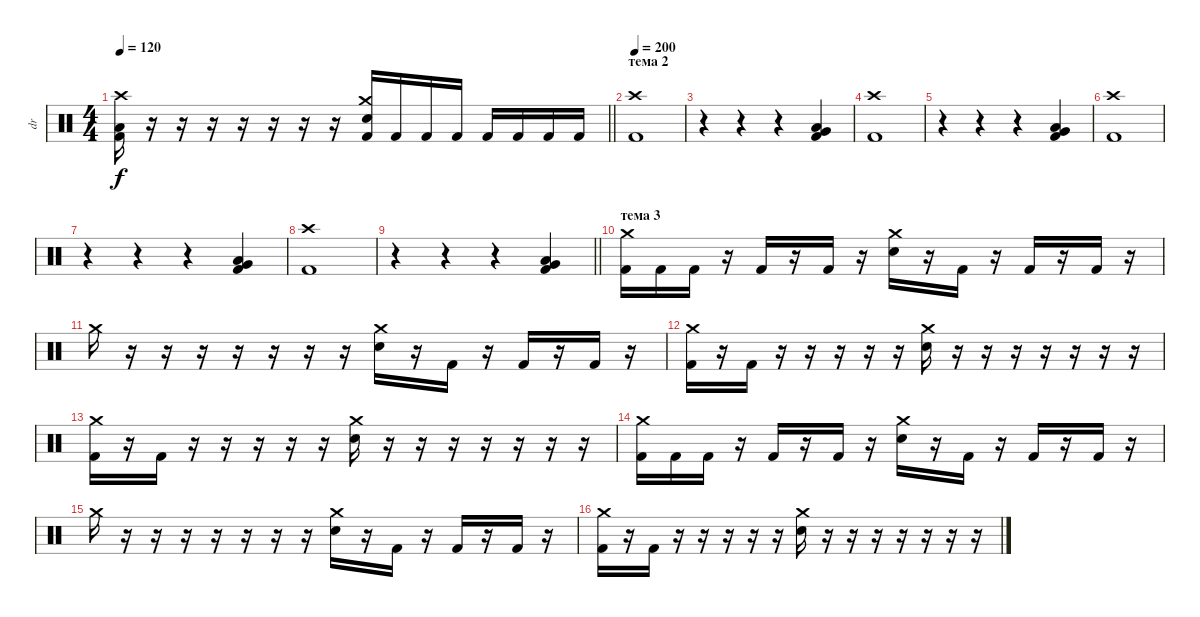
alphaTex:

\track ("dr" "dr") {instrument percussion}
\staff {score}
\articulation defaults
\ts (4 4)
\tempo 120
\clef neutral
\barLineRight lightlight
\ks c
("Crash high (hit)" "Low Floor Tom (hit)" "Kick (hit) 2").16{dy f} r.16 r.16 r.16 r.16 r.16 r.16 r.16 ("Crash medium (hit)" "Electric Snare (hit)" "Kick (hit) 2").16 "Kick (hit) 2".16 "Kick (hit) 2".16 "Kick (hit) 2".16 "Kick (hit) 2".16 "Kick (hit) 2".16 "Kick (hit) 2".16 "Kick (hit) 2".16 |
\section ("" "тема 2")
\tempo 200
("Crash high (hit)" "Kick (hit) 2").1 |
r.4 r.4 r.4 ("Low Floor Tom (hit)" "Kick (hit) 2" "Very Low Tom (hit)").4 |
("Crash high (hit)" "Kick (hit) 2").1 |
r.4 r.4 r.4 ("Low Floor Tom (hit)" "Kick (hit) 2" "Very Low Tom (hit)").4 |
("Crash high (hit)" "Kick (hit) 2").1 |
r.4 r.4 r.4 ("Low Floor Tom (hit)" "Kick (hit) 2" "Very Low Tom (hit)").4 |
("Crash high (hit)" "Kick (hit) 2").1 |
\barLineRight lightlight
r.4 r.4 r.4 ("Low Floor Tom (hit)" "Kick (hit) 2" "Very Low Tom (hit)").4 |
\section ("" "тема 3")
("Crash medium (hit)" "Kick (hit) 2").16 "Kick (hit) 2".16 "Kick (hit) 2".16 r.16 "Kick (hit) 2".16 r.16 "Kick (hit) 2".16 r.16 ("Crash medium (hit)" "Electric Snare (hit)").16 r.16 "Kick (hit) 2".16 r.16 "Kick (hit) 2".16 r.16 "Kick (hit) 2".16 r.16 |
"Crash medium (hit)".16 r.16 r.16 r.16 r.16 r.16 r.16 r.16 ("Crash medium (hit)" "Electric Snare (hit)").16 r.16 "Kick (hit) 2".16 r.16 "Kick (hit) 2".16 r.16 "Kick (hit) 2".16 r.16 |
("Crash medium (hit)" "Kick (hit) 2").16 r.16 "Kick (hit) 2".16 r.16 r.16 r.16 r.16 r.16 ("Crash medium (hit)" "Electric Snare (hit)").16 r.16 r.16 r.16 r.16 r.16 r.16 r.16 |
("Crash medium (hit)" "Kick (hit) 2").16 r.16 "Kick (hit) 2".16 r.16 r.16 r.16 r.16 r.16 ("Crash medium (hit)" "Electric Snare (hit)").16 r.16 r.16 r.16 r.16 r.16 r.16 r.16 |
("Crash medium (hit)" "Kick (hit) 2").16 "Kick (hit) 2".16 "Kick (hit) 2".16 r.16 "Kick (hit) 2".16 r.16 "Kick (hit) 2".16 r.16 ("Crash medium (hit)" "Electric Snare (hit)").16 r.16 "Kick (hit) 2".16 r.16 "Kick (hit) 2".16 r.16 "Kick (hit) 2".16 r.16 |
"Crash medium (hit)".16 r.16 r.16 r.16 r.16 r.16 r.16 r.16 ("Crash medium (hit)" "Electric Snare (hit)").16 r.16 "Kick (hit) 2".16 r.16 "Kick (hit) 2".16 r.16 "Kick (hit) 2".16 r.16 |
("Crash medium (hit)" "Kick (hit) 2").16 r.16 "Kick (hit) 2".16 r.16 r.16 r.16 r.16 r.16 ("Crash medium (hit)" "Electric Snare (hit)").16 r.16 r.16 r.16 r.16 r.16 r.16 r.16
